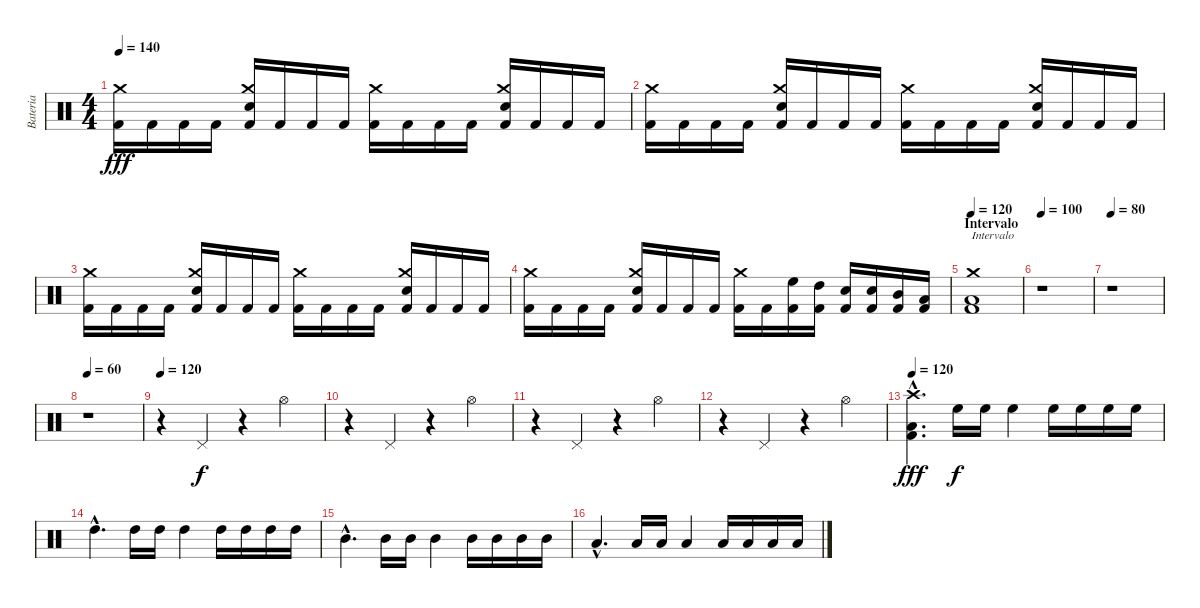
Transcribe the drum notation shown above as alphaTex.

\track ("Bateria" "Bateria") {instrument percussion}
\staff {score}
\articulation defaults
\ts (4 4)
\tempo 140
\clef neutral
\ks c
("Kick (hit) 2" "Crash medium (hit)").16{dy fff} "Kick (hit) 2".16 "Kick (hit) 2".16 "Kick (hit) 2".16 ("Kick (hit) 2" "Metronome (bell)" "Crash medium (hit)").16 "Kick (hit) 2".16 "Kick (hit) 2".16 "Kick (hit) 2".16 ("Kick (hit) 2" "Crash medium (hit)").16 "Kick (hit) 2".16 "Kick (hit) 2".16 "Kick (hit) 2".16 ("Kick (hit) 2" "Metronome (bell)" "Crash medium (hit)").16 "Kick (hit) 2".16 "Kick (hit) 2".16 "Kick (hit) 2".16 |
("Kick (hit) 2" "Crash medium (hit)").16 "Kick (hit) 2".16 "Kick (hit) 2".16 "Kick (hit) 2".16 ("Kick (hit) 2" "Metronome (bell)" "Crash medium (hit)").16 "Kick (hit) 2".16 "Kick (hit) 2".16 "Kick (hit) 2".16 ("Kick (hit) 2" "Crash medium (hit)").16 "Kick (hit) 2".16 "Kick (hit) 2".16 "Kick (hit) 2".16 ("Kick (hit) 2" "Metronome (bell)" "Crash medium (hit)").16 "Kick (hit) 2".16 "Kick (hit) 2".16 "Kick (hit) 2".16 |
("Kick (hit) 2" "Crash medium (hit)").16 "Kick (hit) 2".16 "Kick (hit) 2".16 "Kick (hit) 2".16 ("Kick (hit) 2" "Metronome (bell)" "Crash medium (hit)").16 "Kick (hit) 2".16 "Kick (hit) 2".16 "Kick (hit) 2".16 ("Kick (hit) 2" "Crash medium (hit)").16 "Kick (hit) 2".16 "Kick (hit) 2".16 "Kick (hit) 2".16 ("Kick (hit) 2" "Metronome (bell)" "Crash medium (hit)").16 "Kick (hit) 2".16 "Kick (hit) 2".16 "Kick (hit) 2".16 |
("Kick (hit) 2" "Crash medium (hit)").16 "Kick (hit) 2".16 "Kick (hit) 2".16 "Kick (hit) 2".16 ("Kick (hit) 2" "Metronome (bell)" "Crash medium (hit)").16 "Kick (hit) 2".16 "Kick (hit) 2".16 "Kick (hit) 2".16 ("Kick (hit) 2" "Crash medium (hit)").16 "Kick (hit) 2".16 ("Kick (hit) 2" "High Floor Tom (hit)").16 ("Kick (hit) 2" "High Tom (hit)").16 ("Kick (hit) 2" "Metronome (bell)").16 ("Kick (hit) 2" "Metronome (bell)").16 ("Kick (hit) 2" "Mid Tom (hit)").16 ("Kick (hit) 2" "Low Tom (hit)").16 |
\section ("" "Intervalo")
\tempo 120
("Kick (hit) 2" "Low Floor Tom (hit)" "Crash medium (hit)").1{txt "Intervalo"} |
\tempo 100
r.1 |
\tempo 80
r.1 |
\tempo 60
r.1 |
\tempo 120
r.4 "Pedal Hi-Hat (hit)".4{dy f} r.4 "Hi-Hat (open)".4 |
r.4 "Pedal Hi-Hat (hit)".4 r.4 "Hi-Hat (open)".4 |
r.4 "Pedal Hi-Hat (hit)".4 r.4 "Hi-Hat (open)".4 |
r.4 "Pedal Hi-Hat (hit)".4 r.4 "Hi-Hat (open)".4 |
\tempo 120
("Low Floor Tom (hit)"{hac} "Kick (hit) 2"{hac} "Crash high (hit)"{hac}).4{d dy fff} "High Floor Tom (hit)".16{dy f} "High Floor Tom (hit)".16 "High Floor Tom (hit)".4 "High Floor Tom (hit)".16 "High Floor Tom (hit)".16 "High Floor Tom (hit)".16 "High Floor Tom (hit)".16 |
"High Tom (hit)"{hac}.4{d} "High Tom (hit)".16 "High Tom (hit)".16 "High Tom (hit)".4 "High Tom (hit)".16 "High Tom (hit)".16 "High Tom (hit)".16 "High Tom (hit)".16 |
"Mid Tom (hit)"{hac}.4{d} "Mid Tom (hit)".16 "Mid Tom (hit)".16 "Mid Tom (hit)".4 "Mid Tom (hit)".16 "Mid Tom (hit)".16 "Mid Tom (hit)".16 "Mid Tom (hit)".16 |
"Low Tom (hit)"{hac}.4{d} "Low Tom (hit)".16 "Low Tom (hit)".16 "Low Tom (hit)".4 "Low Tom (hit)".16 "Low Tom (hit)".16 "Low Tom (hit)".16 "Low Tom (hit)".16
